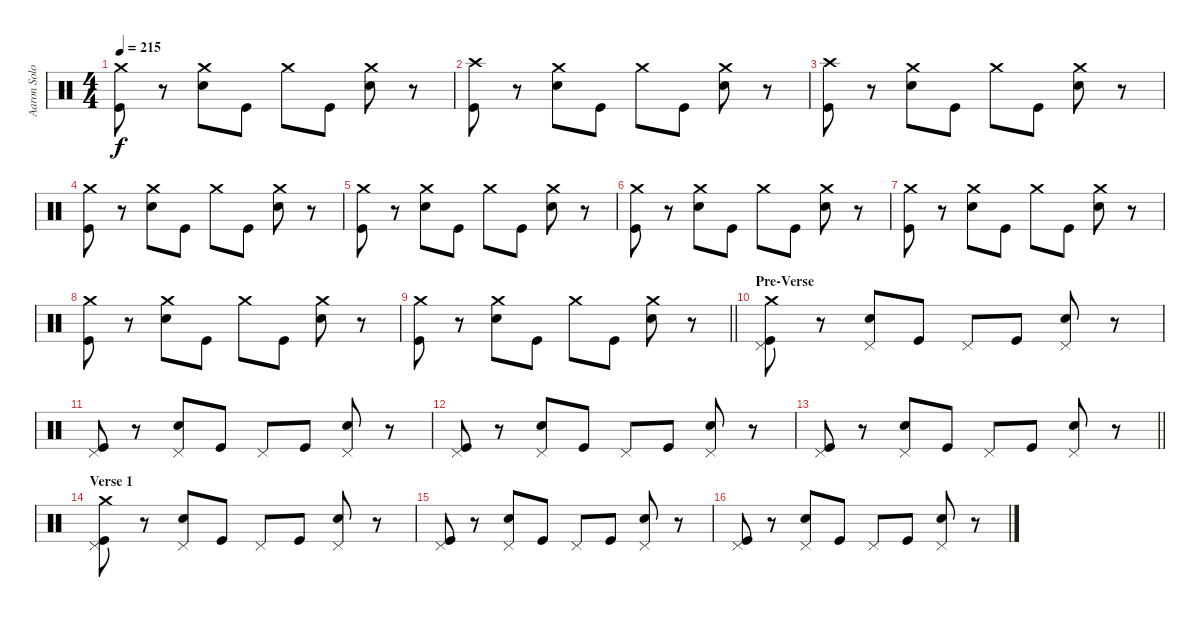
\track ("Aaron Solowoniuk" "Aaron Solo") {instrument percussion}
\staff {score}
\articulation defaults
\ts (4 4)
\tempo 215
\clef neutral
\ks c
("Crash medium (hit)" "Kick (hit)").8{dy f} r.8 ("Crash medium (hit)" "Electric Snare (hit)").8 "Kick (hit)".8 "Crash medium (hit)".8 "Kick (hit)".8 ("Crash medium (hit)" "Electric Snare (hit)").8 r.8 |
("Crash high (hit)" "Kick (hit)").8 r.8 ("Crash medium (hit)" "Electric Snare (hit)").8 "Kick (hit)".8 "Crash medium (hit)".8 "Kick (hit)".8 ("Crash medium (hit)" "Electric Snare (hit)").8 r.8 |
("Crash high (hit)" "Kick (hit)").8 r.8 ("Crash medium (hit)" "Electric Snare (hit)").8 "Kick (hit)".8 "Crash medium (hit)".8 "Kick (hit)".8 ("Crash medium (hit)" "Electric Snare (hit)").8 r.8 |
("Crash medium (hit)" "Kick (hit)").8 r.8 ("Crash medium (hit)" "Electric Snare (hit)").8 "Kick (hit)".8 "Crash medium (hit)".8 "Kick (hit)".8 ("Crash medium (hit)" "Electric Snare (hit)").8 r.8 |
("Crash medium (hit)" "Kick (hit)").8 r.8 ("Crash medium (hit)" "Electric Snare (hit)").8 "Kick (hit)".8 "Crash medium (hit)".8 "Kick (hit)".8 ("Crash medium (hit)" "Electric Snare (hit)").8 r.8 |
("Crash medium (hit)" "Kick (hit)").8 r.8 ("Crash medium (hit)" "Electric Snare (hit)").8 "Kick (hit)".8 "Crash medium (hit)".8 "Kick (hit)".8 ("Crash medium (hit)" "Electric Snare (hit)").8 r.8 |
("Crash medium (hit)" "Kick (hit)").8 r.8 ("Crash medium (hit)" "Electric Snare (hit)").8 "Kick (hit)".8 "Crash medium (hit)".8 "Kick (hit)".8 ("Crash medium (hit)" "Electric Snare (hit)").8 r.8 |
("Crash medium (hit)" "Kick (hit)").8 r.8 ("Crash medium (hit)" "Electric Snare (hit)").8 "Kick (hit)".8 "Crash medium (hit)".8 "Kick (hit)".8 ("Crash medium (hit)" "Electric Snare (hit)").8 r.8 |
\barLineRight lightlight
("Crash medium (hit)" "Kick (hit)").8 r.8 ("Crash medium (hit)" "Electric Snare (hit)").8 "Kick (hit)".8 "Crash medium (hit)".8 "Kick (hit)".8 ("Crash medium (hit)" "Electric Snare (hit)").8 r.8 |
\section ("" "Pre-Verse")
("Crash medium (hit)" "Pedal Hi-Hat (hit)" "Kick (hit)").8 r.8 ("Pedal Hi-Hat (hit)" "Electric Snare (hit)").8 "Kick (hit)".8 "Pedal Hi-Hat (hit)".8 "Kick (hit)".8 ("Pedal Hi-Hat (hit)" "Electric Snare (hit)").8 r.8 |
("Pedal Hi-Hat (hit)" "Kick (hit)").8 r.8 ("Pedal Hi-Hat (hit)" "Electric Snare (hit)").8 "Kick (hit)".8 "Pedal Hi-Hat (hit)".8 "Kick (hit)".8 ("Pedal Hi-Hat (hit)" "Electric Snare (hit)").8 r.8 |
("Pedal Hi-Hat (hit)" "Kick (hit)").8 r.8 ("Pedal Hi-Hat (hit)" "Electric Snare (hit)").8 "Kick (hit)".8 "Pedal Hi-Hat (hit)".8 "Kick (hit)".8 ("Pedal Hi-Hat (hit)" "Electric Snare (hit)").8 r.8 |
\barLineRight lightlight
("Pedal Hi-Hat (hit)" "Kick (hit)").8 r.8 ("Pedal Hi-Hat (hit)" "Electric Snare (hit)").8 "Kick (hit)".8 "Pedal Hi-Hat (hit)".8 "Kick (hit)".8 ("Pedal Hi-Hat (hit)" "Electric Snare (hit)").8 r.8 |
\section ("" "Verse 1")
("Crash medium (hit)" "Pedal Hi-Hat (hit)" "Kick (hit)").8 r.8 ("Pedal Hi-Hat (hit)" "Electric Snare (hit)").8 "Kick (hit)".8 "Pedal Hi-Hat (hit)".8 "Kick (hit)".8 ("Pedal Hi-Hat (hit)" "Electric Snare (hit)").8 r.8 |
("Pedal Hi-Hat (hit)" "Kick (hit)").8 r.8 ("Pedal Hi-Hat (hit)" "Electric Snare (hit)").8 "Kick (hit)".8 "Pedal Hi-Hat (hit)".8 "Kick (hit)".8 ("Pedal Hi-Hat (hit)" "Electric Snare (hit)").8 r.8 |
("Pedal Hi-Hat (hit)" "Kick (hit)").8 r.8 ("Pedal Hi-Hat (hit)" "Electric Snare (hit)").8 "Kick (hit)".8 "Pedal Hi-Hat (hit)".8 "Kick (hit)".8 ("Pedal Hi-Hat (hit)" "Electric Snare (hit)").8 r.8
